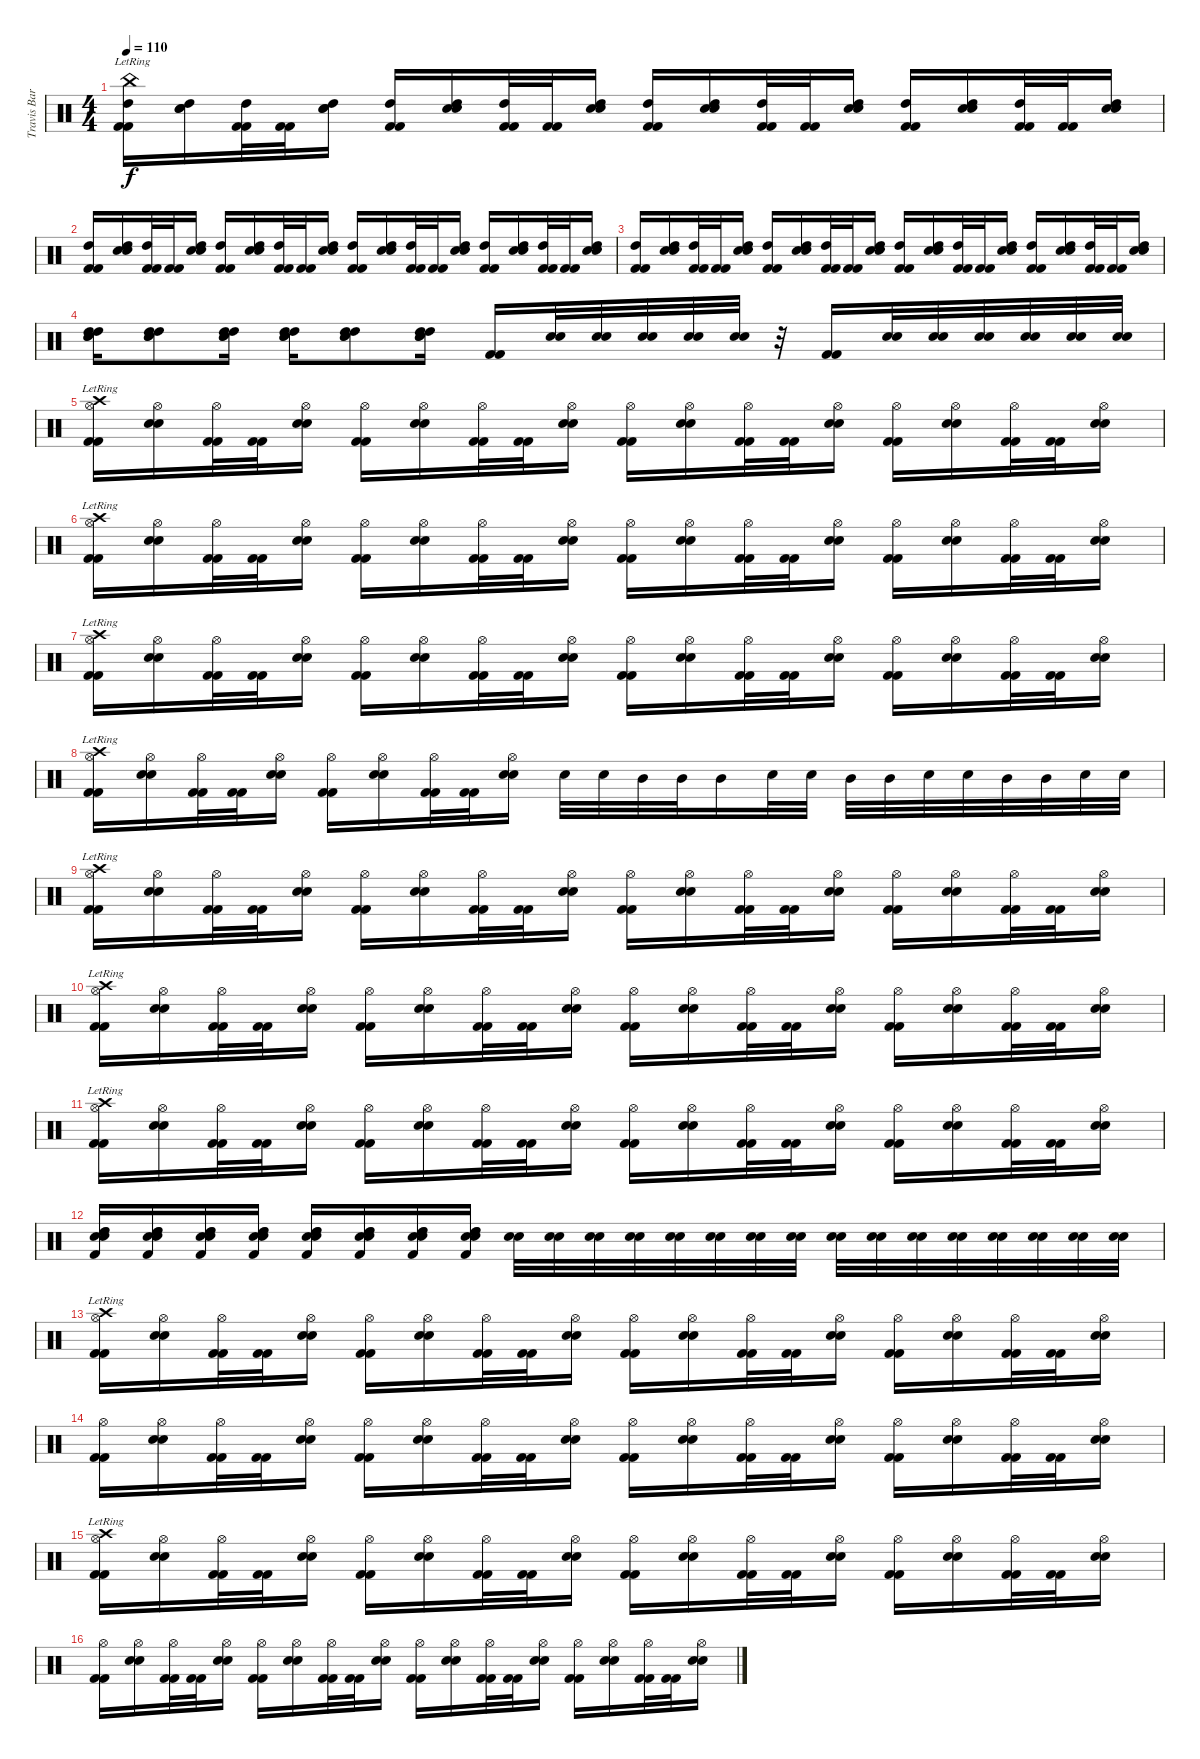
\track ("Travis Barker - Drums" "Travis Bar") {instrument percussion}
\staff {score}
\articulation defaults
\ts (4 4)
\tempo 110
\clef neutral
\ks c
("Kick (hit) 2" "Kick (hit) 2" "High Tom (hit)" "China (hit)"{lr}).16{dy f} ("Snare (hit) 2" "Snare (hit) 2" "High Tom (hit)").16 ("Kick (hit) 2" "Kick (hit) 2" "High Tom (hit)").32 ("Kick (hit) 2" "Kick (hit) 2").32 ("Snare (hit) 2" "Snare (hit) 2" "High Tom (hit)").16 ("Kick (hit) 2" "Kick (hit) 2" "High Tom (hit)").16 ("Snare (hit) 2" "Snare (hit) 2" "High Tom (hit)").16 ("Kick (hit) 2" "Kick (hit) 2" "High Tom (hit)").32 ("Kick (hit) 2" "Kick (hit) 2").32 ("Snare (hit) 2" "Snare (hit) 2" "High Tom (hit)").16 ("Kick (hit) 2" "Kick (hit) 2" "High Tom (hit)").16 ("Snare (hit) 2" "Snare (hit) 2" "High Tom (hit)").16 ("Kick (hit) 2" "Kick (hit) 2" "High Tom (hit)").32 ("Kick (hit) 2" "Kick (hit) 2").32 ("Snare (hit) 2" "Snare (hit) 2" "High Tom (hit)").16 ("Kick (hit) 2" "Kick (hit) 2" "High Tom (hit)").16 ("Snare (hit) 2" "Snare (hit) 2" "High Tom (hit)").16 ("Kick (hit) 2" "Kick (hit) 2" "High Tom (hit)").32 ("Kick (hit) 2" "Kick (hit) 2").32 ("Snare (hit) 2" "Snare (hit) 2" "High Tom (hit)").16 |
("Kick (hit) 2" "Kick (hit) 2" "High Tom (hit)").16 ("Snare (hit) 2" "Snare (hit) 2" "High Tom (hit)").16 ("Kick (hit) 2" "Kick (hit) 2" "High Tom (hit)").32 ("Kick (hit) 2" "Kick (hit) 2").32 ("Snare (hit) 2" "Snare (hit) 2" "High Tom (hit)").16 ("Kick (hit) 2" "Kick (hit) 2" "High Tom (hit)").16 ("Snare (hit) 2" "Snare (hit) 2" "High Tom (hit)").16 ("Kick (hit) 2" "Kick (hit) 2" "High Tom (hit)").32 ("Kick (hit) 2" "Kick (hit) 2").32 ("Snare (hit) 2" "Snare (hit) 2" "High Tom (hit)").16 ("Kick (hit) 2" "Kick (hit) 2" "High Tom (hit)").16 ("Snare (hit) 2" "Snare (hit) 2" "High Tom (hit)").16 ("Kick (hit) 2" "Kick (hit) 2" "High Tom (hit)").32 ("Kick (hit) 2" "Kick (hit) 2").32 ("Snare (hit) 2" "Snare (hit) 2" "High Tom (hit)").16 ("Kick (hit) 2" "Kick (hit) 2" "High Tom (hit)").16 ("Snare (hit) 2" "Snare (hit) 2" "High Tom (hit)").16 ("Kick (hit) 2" "Kick (hit) 2" "High Tom (hit)").32 ("Kick (hit) 2" "Kick (hit) 2").32 ("Snare (hit) 2" "Snare (hit) 2" "High Tom (hit)").16 |
("Kick (hit) 2" "Kick (hit) 2" "High Tom (hit)").16 ("Snare (hit) 2" "Snare (hit) 2" "High Tom (hit)").16 ("Kick (hit) 2" "Kick (hit) 2" "High Tom (hit)").32 ("Kick (hit) 2" "Kick (hit) 2").32 ("Snare (hit) 2" "Snare (hit) 2" "High Tom (hit)").16 ("Kick (hit) 2" "Kick (hit) 2" "High Tom (hit)").16 ("Snare (hit) 2" "Snare (hit) 2" "High Tom (hit)").16 ("Kick (hit) 2" "Kick (hit) 2" "High Tom (hit)").32 ("Kick (hit) 2" "Kick (hit) 2").32 ("Snare (hit) 2" "Snare (hit) 2" "High Tom (hit)").16 ("Kick (hit) 2" "Kick (hit) 2" "High Tom (hit)").16 ("Snare (hit) 2" "Snare (hit) 2" "High Tom (hit)").16 ("Kick (hit) 2" "Kick (hit) 2" "High Tom (hit)").32 ("Kick (hit) 2" "Kick (hit) 2").32 ("Snare (hit) 2" "Snare (hit) 2" "High Tom (hit)").16 ("Kick (hit) 2" "Kick (hit) 2" "High Tom (hit)").16 ("Snare (hit) 2" "Snare (hit) 2" "High Tom (hit)").16 ("Kick (hit) 2" "Kick (hit) 2" "High Tom (hit)").32 ("Kick (hit) 2" "Kick (hit) 2").32 ("Snare (hit) 2" "Snare (hit) 2" "High Tom (hit)").16 |
("Snare (hit) 2" "Snare (hit) 2" "High Tom (hit)" "High Tom (hit)").16 ("Snare (hit) 2" "Snare (hit) 2" "High Tom (hit)" "High Tom (hit)").8 ("Snare (hit) 2" "Snare (hit) 2" "High Tom (hit)" "High Tom (hit)").16 ("Snare (hit) 2" "Snare (hit) 2" "High Tom (hit)" "High Tom (hit)").16 ("Snare (hit) 2" "Snare (hit) 2" "High Tom (hit)" "High Tom (hit)").8 ("Snare (hit) 2" "Snare (hit) 2" "High Tom (hit)" "High Tom (hit)").16 ("Kick (hit) 2" "Kick (hit) 2").16 ("Snare (hit) 2" "Snare (hit) 2").32 ("Snare (hit) 2" "Snare (hit) 2").32 ("Snare (hit) 2" "Snare (hit) 2").32 ("Snare (hit) 2" "Snare (hit) 2").32 ("Snare (hit) 2" "Snare (hit) 2").32 r.32 ("Kick (hit) 2" "Kick (hit) 2").16 ("Snare (hit) 2" "Snare (hit) 2").32 ("Snare (hit) 2" "Snare (hit) 2").32 ("Snare (hit) 2" "Snare (hit) 2").32 ("Snare (hit) 2" "Snare (hit) 2").32 ("Snare (hit) 2" "Snare (hit) 2").32 ("Snare (hit) 2" "Snare (hit) 2").32 |
("Kick (hit) 2" "Kick (hit) 2" "Hi-Hat (open)" "Crash high (hit)"{lr}).16 ("Snare (hit) 2" "Snare (hit) 2" "Hi-Hat (open)").16 ("Kick (hit) 2" "Kick (hit) 2" "Hi-Hat (open)").32 ("Kick (hit) 2" "Kick (hit) 2").32 ("Snare (hit) 2" "Snare (hit) 2" "Hi-Hat (open)").16 ("Kick (hit) 2" "Kick (hit) 2" "Hi-Hat (open)").16 ("Snare (hit) 2" "Snare (hit) 2" "Hi-Hat (open)").16 ("Kick (hit) 2" "Kick (hit) 2" "Hi-Hat (open)").32 ("Kick (hit) 2" "Kick (hit) 2").32 ("Snare (hit) 2" "Snare (hit) 2" "Hi-Hat (open)").16 ("Kick (hit) 2" "Kick (hit) 2" "Hi-Hat (open)").16 ("Snare (hit) 2" "Snare (hit) 2" "Hi-Hat (open)").16 ("Kick (hit) 2" "Kick (hit) 2" "Hi-Hat (open)").32 ("Kick (hit) 2" "Kick (hit) 2").32 ("Snare (hit) 2" "Snare (hit) 2" "Hi-Hat (open)").16 ("Kick (hit) 2" "Kick (hit) 2" "Hi-Hat (open)").16 ("Snare (hit) 2" "Snare (hit) 2" "Hi-Hat (open)").16 ("Kick (hit) 2" "Kick (hit) 2" "Hi-Hat (open)").32 ("Kick (hit) 2" "Kick (hit) 2").32 ("Snare (hit) 2" "Snare (hit) 2" "Hi-Hat (open)").16 |
("Kick (hit) 2" "Kick (hit) 2" "Hi-Hat (open)" "Crash high (hit)"{lr}).16 ("Snare (hit) 2" "Snare (hit) 2" "Hi-Hat (open)").16 ("Kick (hit) 2" "Kick (hit) 2" "Hi-Hat (open)").32 ("Kick (hit) 2" "Kick (hit) 2").32 ("Snare (hit) 2" "Snare (hit) 2" "Hi-Hat (open)").16 ("Kick (hit) 2" "Kick (hit) 2" "Hi-Hat (open)").16 ("Snare (hit) 2" "Snare (hit) 2" "Hi-Hat (open)").16 ("Kick (hit) 2" "Kick (hit) 2" "Hi-Hat (open)").32 ("Kick (hit) 2" "Kick (hit) 2").32 ("Snare (hit) 2" "Snare (hit) 2" "Hi-Hat (open)").16 ("Kick (hit) 2" "Kick (hit) 2" "Hi-Hat (open)").16 ("Snare (hit) 2" "Snare (hit) 2" "Hi-Hat (open)").16 ("Kick (hit) 2" "Kick (hit) 2" "Hi-Hat (open)").32 ("Kick (hit) 2" "Kick (hit) 2").32 ("Snare (hit) 2" "Snare (hit) 2" "Hi-Hat (open)").16 ("Kick (hit) 2" "Kick (hit) 2" "Hi-Hat (open)").16 ("Snare (hit) 2" "Snare (hit) 2" "Hi-Hat (open)").16 ("Kick (hit) 2" "Kick (hit) 2" "Hi-Hat (open)").32 ("Kick (hit) 2" "Kick (hit) 2").32 ("Snare (hit) 2" "Snare (hit) 2" "Hi-Hat (open)").16 |
("Kick (hit) 2" "Kick (hit) 2" "Hi-Hat (open)" "Crash high (hit)"{lr}).16 ("Snare (hit) 2" "Snare (hit) 2" "Hi-Hat (open)").16 ("Kick (hit) 2" "Kick (hit) 2" "Hi-Hat (open)").32 ("Kick (hit) 2" "Kick (hit) 2").32 ("Snare (hit) 2" "Snare (hit) 2" "Hi-Hat (open)").16 ("Kick (hit) 2" "Kick (hit) 2" "Hi-Hat (open)").16 ("Snare (hit) 2" "Snare (hit) 2" "Hi-Hat (open)").16 ("Kick (hit) 2" "Kick (hit) 2" "Hi-Hat (open)").32 ("Kick (hit) 2" "Kick (hit) 2").32 ("Snare (hit) 2" "Snare (hit) 2" "Hi-Hat (open)").16 ("Kick (hit) 2" "Kick (hit) 2" "Hi-Hat (open)").16 ("Snare (hit) 2" "Snare (hit) 2" "Hi-Hat (open)").16 ("Kick (hit) 2" "Kick (hit) 2" "Hi-Hat (open)").32 ("Kick (hit) 2" "Kick (hit) 2").32 ("Snare (hit) 2" "Snare (hit) 2" "Hi-Hat (open)").16 ("Kick (hit) 2" "Kick (hit) 2" "Hi-Hat (open)").16 ("Snare (hit) 2" "Snare (hit) 2" "Hi-Hat (open)").16 ("Kick (hit) 2" "Kick (hit) 2" "Hi-Hat (open)").32 ("Kick (hit) 2" "Kick (hit) 2").32 ("Snare (hit) 2" "Snare (hit) 2" "Hi-Hat (open)").16 |
("Kick (hit) 2" "Kick (hit) 2" "Hi-Hat (open)" "Crash high (hit)"{lr}).16 ("Snare (hit) 2" "Snare (hit) 2" "Hi-Hat (open)").16 ("Kick (hit) 2" "Kick (hit) 2" "Hi-Hat (open)").32 ("Kick (hit) 2" "Kick (hit) 2").32 ("Snare (hit) 2" "Snare (hit) 2" "Hi-Hat (open)").16 ("Kick (hit) 2" "Kick (hit) 2" "Hi-Hat (open)").16 ("Snare (hit) 2" "Snare (hit) 2" "Hi-Hat (open)").16 ("Kick (hit) 2" "Kick (hit) 2" "Hi-Hat (open)").32 ("Kick (hit) 2" "Kick (hit) 2").32 ("Snare (hit) 2" "Snare (hit) 2" "Hi-Hat (open)").16 "Snare (hit) 2".32 "Snare (hit) 2".32 "Mid Tom (hit)".32 "Mid Tom (hit)".32 "Mid Tom (hit)".16 "Snare (hit) 2".32 "Snare (hit) 2".32 "Mid Tom (hit)".32 "Mid Tom (hit)".32 "Snare (hit) 2".32 "Snare (hit) 2".32 "Mid Tom (hit)".32 "Mid Tom (hit)".32 "Snare (hit) 2".32 "Snare (hit) 2".32 |
("Kick (hit) 2" "Kick (hit) 2" "Hi-Hat (open)" "Crash high (hit)"{lr}).16 ("Snare (hit) 2" "Snare (hit) 2" "Hi-Hat (open)").16 ("Kick (hit) 2" "Kick (hit) 2" "Hi-Hat (open)").32 ("Kick (hit) 2" "Kick (hit) 2").32 ("Snare (hit) 2" "Snare (hit) 2" "Hi-Hat (open)").16 ("Kick (hit) 2" "Kick (hit) 2" "Hi-Hat (open)").16 ("Snare (hit) 2" "Snare (hit) 2" "Hi-Hat (open)").16 ("Kick (hit) 2" "Kick (hit) 2" "Hi-Hat (open)").32 ("Kick (hit) 2" "Kick (hit) 2").32 ("Snare (hit) 2" "Snare (hit) 2" "Hi-Hat (open)").16 ("Kick (hit) 2" "Kick (hit) 2" "Hi-Hat (open)").16 ("Snare (hit) 2" "Snare (hit) 2" "Hi-Hat (open)").16 ("Kick (hit) 2" "Kick (hit) 2" "Hi-Hat (open)").32 ("Kick (hit) 2" "Kick (hit) 2").32 ("Snare (hit) 2" "Snare (hit) 2" "Hi-Hat (open)").16 ("Kick (hit) 2" "Kick (hit) 2" "Hi-Hat (open)").16 ("Snare (hit) 2" "Snare (hit) 2" "Hi-Hat (open)").16 ("Kick (hit) 2" "Kick (hit) 2" "Hi-Hat (open)").32 ("Kick (hit) 2" "Kick (hit) 2").32 ("Snare (hit) 2" "Snare (hit) 2" "Hi-Hat (open)").16 |
("Kick (hit) 2" "Kick (hit) 2" "Hi-Hat (open)" "Crash high (hit)"{lr}).16 ("Snare (hit) 2" "Snare (hit) 2" "Hi-Hat (open)").16 ("Kick (hit) 2" "Kick (hit) 2" "Hi-Hat (open)").32 ("Kick (hit) 2" "Kick (hit) 2").32 ("Snare (hit) 2" "Snare (hit) 2" "Hi-Hat (open)").16 ("Kick (hit) 2" "Kick (hit) 2" "Hi-Hat (open)").16 ("Snare (hit) 2" "Snare (hit) 2" "Hi-Hat (open)").16 ("Kick (hit) 2" "Kick (hit) 2" "Hi-Hat (open)").32 ("Kick (hit) 2" "Kick (hit) 2").32 ("Snare (hit) 2" "Snare (hit) 2" "Hi-Hat (open)").16 ("Kick (hit) 2" "Kick (hit) 2" "Hi-Hat (open)").16 ("Snare (hit) 2" "Snare (hit) 2" "Hi-Hat (open)").16 ("Kick (hit) 2" "Kick (hit) 2" "Hi-Hat (open)").32 ("Kick (hit) 2" "Kick (hit) 2").32 ("Snare (hit) 2" "Snare (hit) 2" "Hi-Hat (open)").16 ("Kick (hit) 2" "Kick (hit) 2" "Hi-Hat (open)").16 ("Snare (hit) 2" "Snare (hit) 2" "Hi-Hat (open)").16 ("Kick (hit) 2" "Kick (hit) 2" "Hi-Hat (open)").32 ("Kick (hit) 2" "Kick (hit) 2").32 ("Snare (hit) 2" "Snare (hit) 2" "Hi-Hat (open)").16 |
("Kick (hit) 2" "Kick (hit) 2" "Hi-Hat (open)" "Crash high (hit)"{lr}).16 ("Snare (hit) 2" "Snare (hit) 2" "Hi-Hat (open)").16 ("Kick (hit) 2" "Kick (hit) 2" "Hi-Hat (open)").32 ("Kick (hit) 2" "Kick (hit) 2").32 ("Snare (hit) 2" "Snare (hit) 2" "Hi-Hat (open)").16 ("Kick (hit) 2" "Kick (hit) 2" "Hi-Hat (open)").16 ("Snare (hit) 2" "Snare (hit) 2" "Hi-Hat (open)").16 ("Kick (hit) 2" "Kick (hit) 2" "Hi-Hat (open)").32 ("Kick (hit) 2" "Kick (hit) 2").32 ("Snare (hit) 2" "Snare (hit) 2" "Hi-Hat (open)").16 ("Kick (hit) 2" "Kick (hit) 2" "Hi-Hat (open)").16 ("Snare (hit) 2" "Snare (hit) 2" "Hi-Hat (open)").16 ("Kick (hit) 2" "Kick (hit) 2" "Hi-Hat (open)").32 ("Kick (hit) 2" "Kick (hit) 2").32 ("Snare (hit) 2" "Snare (hit) 2" "Hi-Hat (open)").16 ("Kick (hit) 2" "Kick (hit) 2" "Hi-Hat (open)").16 ("Snare (hit) 2" "Snare (hit) 2" "Hi-Hat (open)").16 ("Kick (hit) 2" "Kick (hit) 2" "Hi-Hat (open)").32 ("Kick (hit) 2" "Kick (hit) 2").32 ("Snare (hit) 2" "Snare (hit) 2" "Hi-Hat (open)").16 |
("Snare (hit) 2" "Snare (hit) 2" "High Tom (hit)" "High Tom (hit)" "Kick (hit) 2").16 ("Snare (hit) 2" "Snare (hit) 2" "High Tom (hit)" "High Tom (hit)" "Kick (hit) 2").16 ("Snare (hit) 2" "Snare (hit) 2" "High Tom (hit)" "High Tom (hit)" "Kick (hit) 2").16 ("Snare (hit) 2" "Snare (hit) 2" "High Tom (hit)" "High Tom (hit)" "Kick (hit) 2").16 ("Snare (hit) 2" "Snare (hit) 2" "High Tom (hit)" "High Tom (hit)" "Kick (hit) 2").16 ("Snare (hit) 2" "Snare (hit) 2" "High Tom (hit)" "High Tom (hit)" "Kick (hit) 2").16 ("Snare (hit) 2" "Snare (hit) 2" "High Tom (hit)" "High Tom (hit)" "Kick (hit) 2").16 ("Snare (hit) 2" "Snare (hit) 2" "High Tom (hit)" "High Tom (hit)" "Kick (hit) 2").16 ("Snare (hit) 2" "Snare (hit) 2").32 ("Snare (hit) 2" "Snare (hit) 2").32 ("Snare (hit) 2" "Snare (hit) 2").32 ("Snare (hit) 2" "Snare (hit) 2").32 ("Snare (hit) 2" "Snare (hit) 2").32 ("Snare (hit) 2" "Snare (hit) 2").32 ("Snare (hit) 2" "Snare (hit) 2").32 ("Snare (hit) 2" "Snare (hit) 2").32 ("Snare (hit) 2" "Snare (hit) 2").32 ("Snare (hit) 2" "Snare (hit) 2").32 ("Snare (hit) 2" "Snare (hit) 2").32 ("Snare (hit) 2" "Snare (hit) 2").32 ("Snare (hit) 2" "Snare (hit) 2").32 ("Snare (hit) 2" "Snare (hit) 2").32 ("Snare (hit) 2" "Snare (hit) 2").32 ("Snare (hit) 2" "Snare (hit) 2").32 |
("Kick (hit) 2" "Kick (hit) 2" "Hi-Hat (open)" "Crash high (hit)"{lr}).16 ("Snare (hit) 2" "Snare (hit) 2" "Hi-Hat (open)").16 ("Kick (hit) 2" "Kick (hit) 2" "Hi-Hat (open)").32 ("Kick (hit) 2" "Kick (hit) 2").32 ("Snare (hit) 2" "Snare (hit) 2" "Hi-Hat (open)").16 ("Kick (hit) 2" "Kick (hit) 2" "Hi-Hat (open)").16 ("Snare (hit) 2" "Snare (hit) 2" "Hi-Hat (open)").16 ("Kick (hit) 2" "Kick (hit) 2" "Hi-Hat (open)").32 ("Kick (hit) 2" "Kick (hit) 2").32 ("Snare (hit) 2" "Snare (hit) 2" "Hi-Hat (open)").16 ("Kick (hit) 2" "Kick (hit) 2" "Hi-Hat (open)").16 ("Snare (hit) 2" "Snare (hit) 2" "Hi-Hat (open)").16 ("Kick (hit) 2" "Kick (hit) 2" "Hi-Hat (open)").32 ("Kick (hit) 2" "Kick (hit) 2").32 ("Snare (hit) 2" "Snare (hit) 2" "Hi-Hat (open)").16 ("Kick (hit) 2" "Kick (hit) 2" "Hi-Hat (open)").16 ("Snare (hit) 2" "Snare (hit) 2" "Hi-Hat (open)").16 ("Kick (hit) 2" "Kick (hit) 2" "Hi-Hat (open)").32 ("Kick (hit) 2" "Kick (hit) 2").32 ("Snare (hit) 2" "Snare (hit) 2" "Hi-Hat (open)").16 |
("Kick (hit) 2" "Kick (hit) 2" "Hi-Hat (open)").16 ("Snare (hit) 2" "Snare (hit) 2" "Hi-Hat (open)").16 ("Kick (hit) 2" "Kick (hit) 2" "Hi-Hat (open)").32 ("Kick (hit) 2" "Kick (hit) 2").32 ("Snare (hit) 2" "Snare (hit) 2" "Hi-Hat (open)").16 ("Kick (hit) 2" "Kick (hit) 2" "Hi-Hat (open)").16 ("Snare (hit) 2" "Snare (hit) 2" "Hi-Hat (open)").16 ("Kick (hit) 2" "Kick (hit) 2" "Hi-Hat (open)").32 ("Kick (hit) 2" "Kick (hit) 2").32 ("Snare (hit) 2" "Snare (hit) 2" "Hi-Hat (open)").16 ("Kick (hit) 2" "Kick (hit) 2" "Hi-Hat (open)").16 ("Snare (hit) 2" "Snare (hit) 2" "Hi-Hat (open)").16 ("Kick (hit) 2" "Kick (hit) 2" "Hi-Hat (open)").32 ("Kick (hit) 2" "Kick (hit) 2").32 ("Snare (hit) 2" "Snare (hit) 2" "Hi-Hat (open)").16 ("Kick (hit) 2" "Kick (hit) 2" "Hi-Hat (open)").16 ("Snare (hit) 2" "Snare (hit) 2" "Hi-Hat (open)").16 ("Kick (hit) 2" "Kick (hit) 2" "Hi-Hat (open)").32 ("Kick (hit) 2" "Kick (hit) 2").32 ("Snare (hit) 2" "Snare (hit) 2" "Hi-Hat (open)").16 |
("Kick (hit) 2" "Kick (hit) 2" "Hi-Hat (open)" "Crash high (hit)"{lr}).16 ("Snare (hit) 2" "Snare (hit) 2" "Hi-Hat (open)").16 ("Kick (hit) 2" "Kick (hit) 2" "Hi-Hat (open)").32 ("Kick (hit) 2" "Kick (hit) 2").32 ("Snare (hit) 2" "Snare (hit) 2" "Hi-Hat (open)").16 ("Kick (hit) 2" "Kick (hit) 2" "Hi-Hat (open)").16 ("Snare (hit) 2" "Snare (hit) 2" "Hi-Hat (open)").16 ("Kick (hit) 2" "Kick (hit) 2" "Hi-Hat (open)").32 ("Kick (hit) 2" "Kick (hit) 2").32 ("Snare (hit) 2" "Snare (hit) 2" "Hi-Hat (open)").16 ("Kick (hit) 2" "Kick (hit) 2" "Hi-Hat (open)").16 ("Snare (hit) 2" "Snare (hit) 2" "Hi-Hat (open)").16 ("Kick (hit) 2" "Kick (hit) 2" "Hi-Hat (open)").32 ("Kick (hit) 2" "Kick (hit) 2").32 ("Snare (hit) 2" "Snare (hit) 2" "Hi-Hat (open)").16 ("Kick (hit) 2" "Kick (hit) 2" "Hi-Hat (open)").16 ("Snare (hit) 2" "Snare (hit) 2" "Hi-Hat (open)").16 ("Kick (hit) 2" "Kick (hit) 2" "Hi-Hat (open)").32 ("Kick (hit) 2" "Kick (hit) 2").32 ("Snare (hit) 2" "Snare (hit) 2" "Hi-Hat (open)").16 |
("Kick (hit) 2" "Kick (hit) 2" "Hi-Hat (open)").16 ("Snare (hit) 2" "Snare (hit) 2" "Hi-Hat (open)").16 ("Kick (hit) 2" "Kick (hit) 2" "Hi-Hat (open)").32 ("Kick (hit) 2" "Kick (hit) 2").32 ("Snare (hit) 2" "Snare (hit) 2" "Hi-Hat (open)").16 ("Kick (hit) 2" "Kick (hit) 2" "Hi-Hat (open)").16 ("Snare (hit) 2" "Snare (hit) 2" "Hi-Hat (open)").16 ("Kick (hit) 2" "Kick (hit) 2" "Hi-Hat (open)").32 ("Kick (hit) 2" "Kick (hit) 2").32 ("Snare (hit) 2" "Snare (hit) 2" "Hi-Hat (open)").16 ("Kick (hit) 2" "Kick (hit) 2" "Hi-Hat (open)").16 ("Snare (hit) 2" "Snare (hit) 2" "Hi-Hat (open)").16 ("Kick (hit) 2" "Kick (hit) 2" "Hi-Hat (open)").32 ("Kick (hit) 2" "Kick (hit) 2").32 ("Snare (hit) 2" "Snare (hit) 2" "Hi-Hat (open)").16 ("Kick (hit) 2" "Kick (hit) 2" "Hi-Hat (open)").16 ("Snare (hit) 2" "Snare (hit) 2" "Hi-Hat (open)").16 ("Kick (hit) 2" "Kick (hit) 2" "Hi-Hat (open)").32 ("Kick (hit) 2" "Kick (hit) 2").32 ("Snare (hit) 2" "Snare (hit) 2" "Hi-Hat (open)").16
